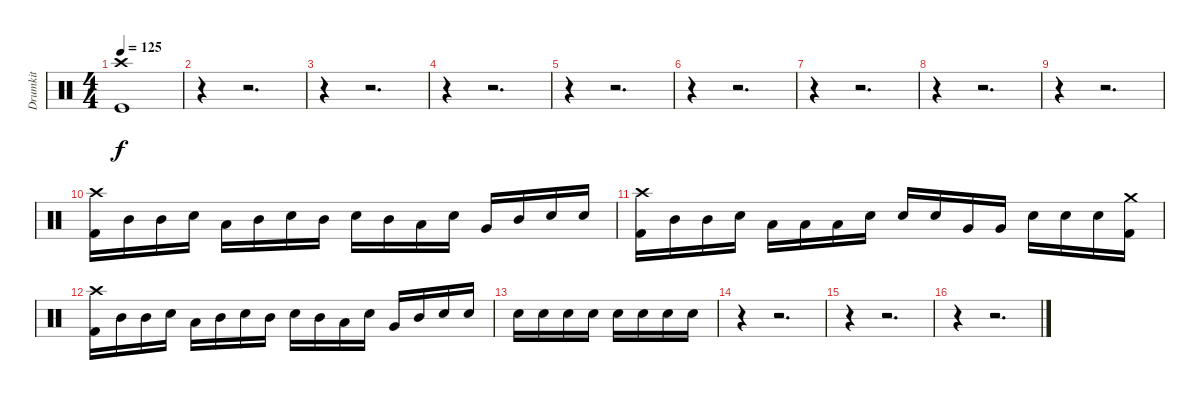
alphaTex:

\track ("Drumkit" "Drumkit") {instrument percussion}
\staff {score}
\articulation defaults
\ts (4 4)
\tempo 125
\clef neutral
\ks c
("Crash high (hit)" "Kick (hit)").1{dy f} |
r.4 r.2{d} |
r.4 r.2{d} |
r.4 r.2{d} |
r.4 r.2{d} |
r.4 r.2{d} |
r.4 r.2{d} |
r.4 r.2{d} |
r.4 r.2{d} |
("Crash high (hit)" "Kick (hit) 2").16 "Mid Tom (hit)".16 "Mid Tom (hit)".16 "Snare (hit) 2".16 "Low Tom (hit)".16 "Mid Tom (hit)".16 "Snare (hit) 2".16 "Mid Tom (hit)".16 "Snare (hit) 2".16 "Mid Tom (hit)".16 "Low Tom (hit)".16 "Snare (hit) 2".16 "Very Low Tom (hit)".16 "Mid Tom (hit)".16 "Snare (hit) 2".16 "Snare (hit) 2".16 |
("Crash high (hit)" "Kick (hit) 2").16 "Mid Tom (hit)".16 "Mid Tom (hit)".16 "Snare (hit) 2".16 "Low Tom (hit)".16 "Low Tom (hit)".16 "Low Tom (hit)".16 "Snare (hit) 2".16 "Snare (hit) 2".16 "Snare (hit) 2".16 "Very Low Tom (hit)".16 "Very Low Tom (hit)".16 "Snare (hit) 2".16 "Snare (hit) 2".16 "Snare (hit) 2".16 ("Crash medium (hit)" "Kick (hit) 2").16 |
("Crash high (hit)" "Kick (hit) 2").16 "Mid Tom (hit)".16 "Mid Tom (hit)".16 "Snare (hit) 2".16 "Low Tom (hit)".16 "Mid Tom (hit)".16 "Snare (hit) 2".16 "Mid Tom (hit)".16 "Snare (hit) 2".16 "Mid Tom (hit)".16 "Low Tom (hit)".16 "Snare (hit) 2".16 "Very Low Tom (hit)".16 "Mid Tom (hit)".16 "Snare (hit) 2".16 "Snare (hit) 2".16 |
"Snare (hit) 2".16 "Snare (hit) 2".16 "Snare (hit) 2".16 "Snare (hit) 2".16 "Snare (hit) 2".16 "Snare (hit) 2".16 "Snare (hit) 2".16 "Snare (hit) 2".16 |
r.4 r.2{d} |
r.4 r.2{d} |
r.4 r.2{d}
